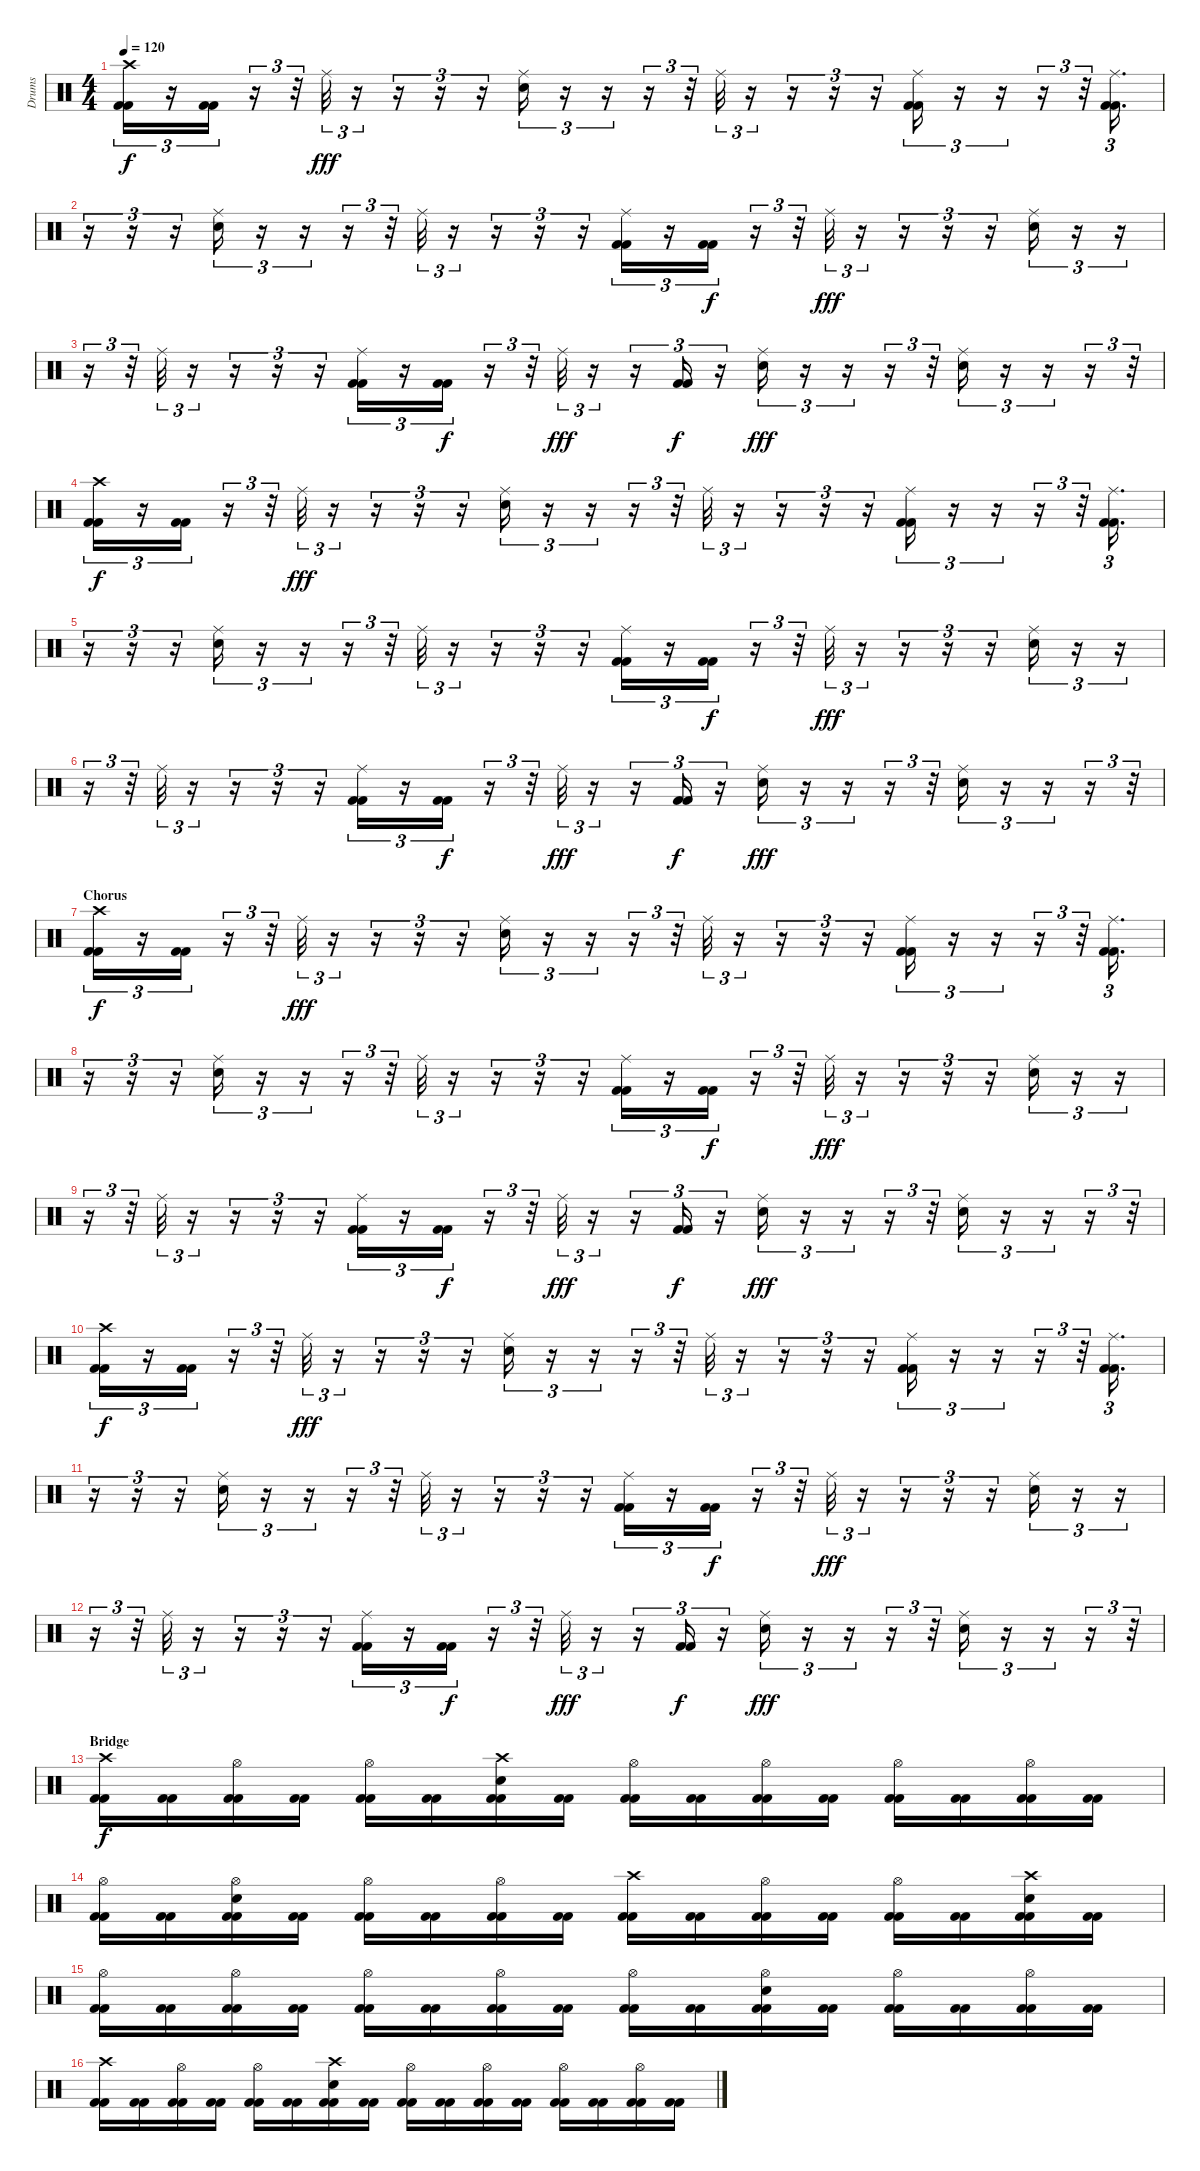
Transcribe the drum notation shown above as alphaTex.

\track ("Drums" "Drums") {instrument percussion}
\staff {score}
\articulation defaults
\ts (4 4)
\tempo 120
\clef neutral
\ks c
("Kick (hit) 2" "Kick (hit) 2" "Crash high (hit)").16{tu (3 2) dy f} r.16{tu (3 2)} ("Kick (hit) 2" "Kick (hit) 2").16{tu (3 2)} r.16{tu (3 2)} r.32{tu (3 2)} "Ride (middle)".32{tu (3 2) dy fff} r.16{tu (3 2)} r.16{tu (3 2)} r.16{tu (3 2)} r.16{tu (3 2)} ("Electric Snare (hit)" "Ride (middle)").16{tu (3 2)} r.16{tu (3 2)} r.16{tu (3 2)} r.16{tu (3 2)} r.32{tu (3 2)} "Ride (middle)".32{tu (3 2)} r.16{tu (3 2)} r.16{tu (3 2)} r.16{tu (3 2)} r.16{tu (3 2)} ("Kick (hit) 2" "Kick (hit) 2" "Ride (middle)").16{tu (3 2)} r.16{tu (3 2)} r.16{tu (3 2)} r.16{tu (3 2)} r.32{tu (3 2)} ("Kick (hit) 2" "Kick (hit) 2" "Ride (middle)").16{d tu (3 2)} |
r.16{tu (3 2)} r.16{tu (3 2)} r.16{tu (3 2)} ("Electric Snare (hit)" "Ride (middle)").16{tu (3 2)} r.16{tu (3 2)} r.16{tu (3 2)} r.16{tu (3 2)} r.32{tu (3 2)} "Ride (middle)".32{tu (3 2)} r.16{tu (3 2)} r.16{tu (3 2)} r.16{tu (3 2)} r.16{tu (3 2)} ("Kick (hit) 2" "Kick (hit) 2" "Ride (middle)").16{tu (3 2)} r.16{tu (3 2)} ("Kick (hit) 2" "Kick (hit) 2").16{tu (3 2) dy f} r.16{tu (3 2)} r.32{tu (3 2)} "Ride (middle)".32{tu (3 2) dy fff} r.16{tu (3 2)} r.16{tu (3 2)} r.16{tu (3 2)} r.16{tu (3 2)} ("Electric Snare (hit)" "Ride (middle)").16{tu (3 2)} r.16{tu (3 2)} r.16{tu (3 2)} |
r.16{tu (3 2)} r.32{tu (3 2)} "Ride (middle)".32{tu (3 2)} r.16{tu (3 2)} r.16{tu (3 2)} r.16{tu (3 2)} r.16{tu (3 2)} ("Kick (hit) 2" "Kick (hit) 2" "Ride (middle)").16{tu (3 2)} r.16{tu (3 2)} ("Kick (hit) 2" "Kick (hit) 2").16{tu (3 2) dy f} r.16{tu (3 2)} r.32{tu (3 2)} "Ride (middle)".32{tu (3 2) dy fff} r.16{tu (3 2)} r.16{tu (3 2)} ("Kick (hit) 2" "Kick (hit) 2").16{tu (3 2) dy f} r.16{tu (3 2)} ("Electric Snare (hit)" "Ride (middle)").16{tu (3 2) dy fff} r.16{tu (3 2)} r.16{tu (3 2)} r.16{tu (3 2)} r.32{tu (3 2)} ("Electric Snare (hit)" "Ride (middle)").16{tu (3 2)} r.16{tu (3 2)} r.16{tu (3 2)} r.16{tu (3 2)} r.32{tu (3 2)} |
("Kick (hit) 2" "Kick (hit) 2" "Crash high (hit)").16{tu (3 2) dy f} r.16{tu (3 2)} ("Kick (hit) 2" "Kick (hit) 2").16{tu (3 2)} r.16{tu (3 2)} r.32{tu (3 2)} "Ride (middle)".32{tu (3 2) dy fff} r.16{tu (3 2)} r.16{tu (3 2)} r.16{tu (3 2)} r.16{tu (3 2)} ("Electric Snare (hit)" "Ride (middle)").16{tu (3 2)} r.16{tu (3 2)} r.16{tu (3 2)} r.16{tu (3 2)} r.32{tu (3 2)} "Ride (middle)".32{tu (3 2)} r.16{tu (3 2)} r.16{tu (3 2)} r.16{tu (3 2)} r.16{tu (3 2)} ("Kick (hit) 2" "Kick (hit) 2" "Ride (middle)").16{tu (3 2)} r.16{tu (3 2)} r.16{tu (3 2)} r.16{tu (3 2)} r.32{tu (3 2)} ("Kick (hit) 2" "Kick (hit) 2" "Ride (middle)").16{d tu (3 2)} |
r.16{tu (3 2)} r.16{tu (3 2)} r.16{tu (3 2)} ("Electric Snare (hit)" "Ride (middle)").16{tu (3 2)} r.16{tu (3 2)} r.16{tu (3 2)} r.16{tu (3 2)} r.32{tu (3 2)} "Ride (middle)".32{tu (3 2)} r.16{tu (3 2)} r.16{tu (3 2)} r.16{tu (3 2)} r.16{tu (3 2)} ("Kick (hit) 2" "Kick (hit) 2" "Ride (middle)").16{tu (3 2)} r.16{tu (3 2)} ("Kick (hit) 2" "Kick (hit) 2").16{tu (3 2) dy f} r.16{tu (3 2)} r.32{tu (3 2)} "Ride (middle)".32{tu (3 2) dy fff} r.16{tu (3 2)} r.16{tu (3 2)} r.16{tu (3 2)} r.16{tu (3 2)} ("Electric Snare (hit)" "Ride (middle)").16{tu (3 2)} r.16{tu (3 2)} r.16{tu (3 2)} |
r.16{tu (3 2)} r.32{tu (3 2)} "Ride (middle)".32{tu (3 2)} r.16{tu (3 2)} r.16{tu (3 2)} r.16{tu (3 2)} r.16{tu (3 2)} ("Kick (hit) 2" "Kick (hit) 2" "Ride (middle)").16{tu (3 2)} r.16{tu (3 2)} ("Kick (hit) 2" "Kick (hit) 2").16{tu (3 2) dy f} r.16{tu (3 2)} r.32{tu (3 2)} "Ride (middle)".32{tu (3 2) dy fff} r.16{tu (3 2)} r.16{tu (3 2)} ("Kick (hit) 2" "Kick (hit) 2").16{tu (3 2) dy f} r.16{tu (3 2)} ("Electric Snare (hit)" "Ride (middle)").16{tu (3 2) dy fff} r.16{tu (3 2)} r.16{tu (3 2)} r.16{tu (3 2)} r.32{tu (3 2)} ("Electric Snare (hit)" "Ride (middle)").16{tu (3 2)} r.16{tu (3 2)} r.16{tu (3 2)} r.16{tu (3 2)} r.32{tu (3 2)} |
\section ("" "Chorus")
("Kick (hit) 2" "Kick (hit) 2" "Crash high (hit)").16{tu (3 2) dy f} r.16{tu (3 2)} ("Kick (hit) 2" "Kick (hit) 2").16{tu (3 2)} r.16{tu (3 2)} r.32{tu (3 2)} "Ride (middle)".32{tu (3 2) dy fff} r.16{tu (3 2)} r.16{tu (3 2)} r.16{tu (3 2)} r.16{tu (3 2)} ("Electric Snare (hit)" "Ride (middle)").16{tu (3 2)} r.16{tu (3 2)} r.16{tu (3 2)} r.16{tu (3 2)} r.32{tu (3 2)} "Ride (middle)".32{tu (3 2)} r.16{tu (3 2)} r.16{tu (3 2)} r.16{tu (3 2)} r.16{tu (3 2)} ("Kick (hit) 2" "Kick (hit) 2" "Ride (middle)").16{tu (3 2)} r.16{tu (3 2)} r.16{tu (3 2)} r.16{tu (3 2)} r.32{tu (3 2)} ("Kick (hit) 2" "Kick (hit) 2" "Ride (middle)").16{d tu (3 2)} |
r.16{tu (3 2)} r.16{tu (3 2)} r.16{tu (3 2)} ("Electric Snare (hit)" "Ride (middle)").16{tu (3 2)} r.16{tu (3 2)} r.16{tu (3 2)} r.16{tu (3 2)} r.32{tu (3 2)} "Ride (middle)".32{tu (3 2)} r.16{tu (3 2)} r.16{tu (3 2)} r.16{tu (3 2)} r.16{tu (3 2)} ("Kick (hit) 2" "Kick (hit) 2" "Ride (middle)").16{tu (3 2)} r.16{tu (3 2)} ("Kick (hit) 2" "Kick (hit) 2").16{tu (3 2) dy f} r.16{tu (3 2)} r.32{tu (3 2)} "Ride (middle)".32{tu (3 2) dy fff} r.16{tu (3 2)} r.16{tu (3 2)} r.16{tu (3 2)} r.16{tu (3 2)} ("Electric Snare (hit)" "Ride (middle)").16{tu (3 2)} r.16{tu (3 2)} r.16{tu (3 2)} |
r.16{tu (3 2)} r.32{tu (3 2)} "Ride (middle)".32{tu (3 2)} r.16{tu (3 2)} r.16{tu (3 2)} r.16{tu (3 2)} r.16{tu (3 2)} ("Kick (hit) 2" "Kick (hit) 2" "Ride (middle)").16{tu (3 2)} r.16{tu (3 2)} ("Kick (hit) 2" "Kick (hit) 2").16{tu (3 2) dy f} r.16{tu (3 2)} r.32{tu (3 2)} "Ride (middle)".32{tu (3 2) dy fff} r.16{tu (3 2)} r.16{tu (3 2)} ("Kick (hit) 2" "Kick (hit) 2").16{tu (3 2) dy f} r.16{tu (3 2)} ("Electric Snare (hit)" "Ride (middle)").16{tu (3 2) dy fff} r.16{tu (3 2)} r.16{tu (3 2)} r.16{tu (3 2)} r.32{tu (3 2)} ("Electric Snare (hit)" "Ride (middle)").16{tu (3 2)} r.16{tu (3 2)} r.16{tu (3 2)} r.16{tu (3 2)} r.32{tu (3 2)} |
("Kick (hit) 2" "Kick (hit) 2" "Crash high (hit)").16{tu (3 2) dy f} r.16{tu (3 2)} ("Kick (hit) 2" "Kick (hit) 2").16{tu (3 2)} r.16{tu (3 2)} r.32{tu (3 2)} "Ride (middle)".32{tu (3 2) dy fff} r.16{tu (3 2)} r.16{tu (3 2)} r.16{tu (3 2)} r.16{tu (3 2)} ("Electric Snare (hit)" "Ride (middle)").16{tu (3 2)} r.16{tu (3 2)} r.16{tu (3 2)} r.16{tu (3 2)} r.32{tu (3 2)} "Ride (middle)".32{tu (3 2)} r.16{tu (3 2)} r.16{tu (3 2)} r.16{tu (3 2)} r.16{tu (3 2)} ("Kick (hit) 2" "Kick (hit) 2" "Ride (middle)").16{tu (3 2)} r.16{tu (3 2)} r.16{tu (3 2)} r.16{tu (3 2)} r.32{tu (3 2)} ("Kick (hit) 2" "Kick (hit) 2" "Ride (middle)").16{d tu (3 2)} |
r.16{tu (3 2)} r.16{tu (3 2)} r.16{tu (3 2)} ("Electric Snare (hit)" "Ride (middle)").16{tu (3 2)} r.16{tu (3 2)} r.16{tu (3 2)} r.16{tu (3 2)} r.32{tu (3 2)} "Ride (middle)".32{tu (3 2)} r.16{tu (3 2)} r.16{tu (3 2)} r.16{tu (3 2)} r.16{tu (3 2)} ("Kick (hit) 2" "Kick (hit) 2" "Ride (middle)").16{tu (3 2)} r.16{tu (3 2)} ("Kick (hit) 2" "Kick (hit) 2").16{tu (3 2) dy f} r.16{tu (3 2)} r.32{tu (3 2)} "Ride (middle)".32{tu (3 2) dy fff} r.16{tu (3 2)} r.16{tu (3 2)} r.16{tu (3 2)} r.16{tu (3 2)} ("Electric Snare (hit)" "Ride (middle)").16{tu (3 2)} r.16{tu (3 2)} r.16{tu (3 2)} |
r.16{tu (3 2)} r.32{tu (3 2)} "Ride (middle)".32{tu (3 2)} r.16{tu (3 2)} r.16{tu (3 2)} r.16{tu (3 2)} r.16{tu (3 2)} ("Kick (hit) 2" "Kick (hit) 2" "Ride (middle)").16{tu (3 2)} r.16{tu (3 2)} ("Kick (hit) 2" "Kick (hit) 2").16{tu (3 2) dy f} r.16{tu (3 2)} r.32{tu (3 2)} "Ride (middle)".32{tu (3 2) dy fff} r.16{tu (3 2)} r.16{tu (3 2)} ("Kick (hit) 2" "Kick (hit) 2").16{tu (3 2) dy f} r.16{tu (3 2)} ("Electric Snare (hit)" "Ride (middle)").16{tu (3 2) dy fff} r.16{tu (3 2)} r.16{tu (3 2)} r.16{tu (3 2)} r.32{tu (3 2)} ("Electric Snare (hit)" "Ride (middle)").16{tu (3 2)} r.16{tu (3 2)} r.16{tu (3 2)} r.16{tu (3 2)} r.32{tu (3 2)} |
\section ("" "Bridge")
("Kick (hit) 2" "Kick (hit) 2" "Crash high (hit)").16{dy f} ("Kick (hit) 2" "Kick (hit) 2").16 ("Kick (hit) 2" "Kick (hit) 2" "Hi-Hat (open)").16 ("Kick (hit) 2" "Kick (hit) 2").16 ("Kick (hit) 2" "Kick (hit) 2" "Hi-Hat (open)").16 ("Kick (hit) 2" "Kick (hit) 2").16 ("Kick (hit) 2" "Kick (hit) 2" "Electric Snare (hit)" "Crash high (hit)").16 ("Kick (hit) 2" "Kick (hit) 2").16 ("Kick (hit) 2" "Kick (hit) 2" "Hi-Hat (open)").16 ("Kick (hit) 2" "Kick (hit) 2").16 ("Kick (hit) 2" "Kick (hit) 2" "Hi-Hat (open)").16 ("Kick (hit) 2" "Kick (hit) 2").16 ("Kick (hit) 2" "Kick (hit) 2" "Hi-Hat (open)").16 ("Kick (hit) 2" "Kick (hit) 2").16 ("Kick (hit) 2" "Kick (hit) 2" "Hi-Hat (open)").16 ("Kick (hit) 2" "Kick (hit) 2").16 |
("Kick (hit) 2" "Kick (hit) 2" "Hi-Hat (open)").16 ("Kick (hit) 2" "Kick (hit) 2").16 ("Kick (hit) 2" "Kick (hit) 2" "Electric Snare (hit)" "Hi-Hat (open)").16 ("Kick (hit) 2" "Kick (hit) 2").16 ("Kick (hit) 2" "Kick (hit) 2" "Hi-Hat (open)").16 ("Kick (hit) 2" "Kick (hit) 2").16 ("Kick (hit) 2" "Kick (hit) 2" "Hi-Hat (open)").16 ("Kick (hit) 2" "Kick (hit) 2").16 ("Kick (hit) 2" "Kick (hit) 2" "Crash high (hit)").16 ("Kick (hit) 2" "Kick (hit) 2").16 ("Kick (hit) 2" "Kick (hit) 2" "Hi-Hat (open)").16 ("Kick (hit) 2" "Kick (hit) 2").16 ("Kick (hit) 2" "Kick (hit) 2" "Hi-Hat (open)").16 ("Kick (hit) 2" "Kick (hit) 2").16 ("Kick (hit) 2" "Kick (hit) 2" "Electric Snare (hit)" "Crash high (hit)").16 ("Kick (hit) 2" "Kick (hit) 2").16 |
("Kick (hit) 2" "Kick (hit) 2" "Hi-Hat (open)").16 ("Kick (hit) 2" "Kick (hit) 2").16 ("Kick (hit) 2" "Kick (hit) 2" "Hi-Hat (open)").16 ("Kick (hit) 2" "Kick (hit) 2").16 ("Kick (hit) 2" "Kick (hit) 2" "Hi-Hat (open)").16 ("Kick (hit) 2" "Kick (hit) 2").16 ("Kick (hit) 2" "Kick (hit) 2" "Hi-Hat (open)").16 ("Kick (hit) 2" "Kick (hit) 2").16 ("Kick (hit) 2" "Kick (hit) 2" "Hi-Hat (open)").16 ("Kick (hit) 2" "Kick (hit) 2").16 ("Kick (hit) 2" "Kick (hit) 2" "Electric Snare (hit)" "Hi-Hat (open)").16 ("Kick (hit) 2" "Kick (hit) 2").16 ("Kick (hit) 2" "Kick (hit) 2" "Hi-Hat (open)").16 ("Kick (hit) 2" "Kick (hit) 2").16 ("Kick (hit) 2" "Kick (hit) 2" "Hi-Hat (open)").16 ("Kick (hit) 2" "Kick (hit) 2").16 |
("Kick (hit) 2" "Kick (hit) 2" "Crash high (hit)").16 ("Kick (hit) 2" "Kick (hit) 2").16 ("Kick (hit) 2" "Kick (hit) 2" "Hi-Hat (open)").16 ("Kick (hit) 2" "Kick (hit) 2").16 ("Kick (hit) 2" "Kick (hit) 2" "Hi-Hat (open)").16 ("Kick (hit) 2" "Kick (hit) 2").16 ("Kick (hit) 2" "Kick (hit) 2" "Electric Snare (hit)" "Crash high (hit)").16 ("Kick (hit) 2" "Kick (hit) 2").16 ("Kick (hit) 2" "Kick (hit) 2" "Hi-Hat (open)").16 ("Kick (hit) 2" "Kick (hit) 2").16 ("Kick (hit) 2" "Kick (hit) 2" "Hi-Hat (open)").16 ("Kick (hit) 2" "Kick (hit) 2").16 ("Kick (hit) 2" "Kick (hit) 2" "Hi-Hat (open)").16 ("Kick (hit) 2" "Kick (hit) 2").16 ("Kick (hit) 2" "Kick (hit) 2" "Hi-Hat (open)").16 ("Kick (hit) 2" "Kick (hit) 2").16
